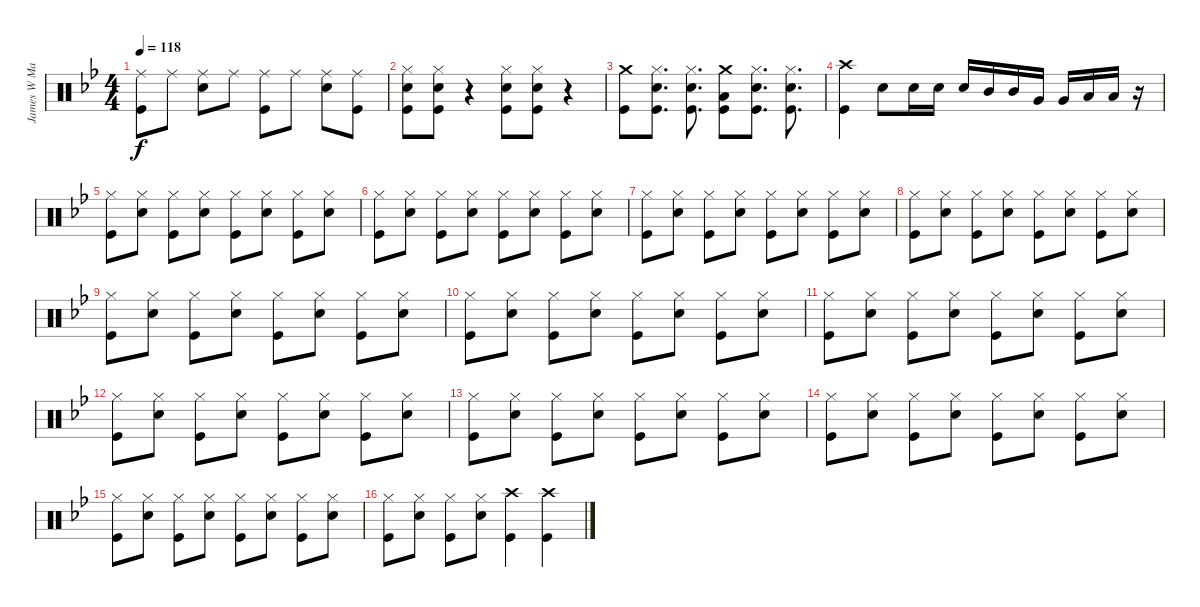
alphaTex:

\track ("James W Marshall Drums" "James W Ma") {instrument percussion}
\staff {score}
\articulation defaults
\ts (4 4)
\tempo 118
\clef neutral
\ks gminor
("Ride (middle)" "Kick (hit)").8{dy f} "Ride (middle)".8 ("Ride (middle)" "Snare (hit) 2").8 "Ride (middle)".8 ("Ride (middle)" "Kick (hit)").8 "Ride (middle)".8 ("Ride (middle)" "Snare (hit) 2").8 ("Ride (middle)" "Kick (hit)").8 |
("Hi-Hat (closed)" "Snare (hit) 2" "Kick (hit)").8 ("Hi-Hat (closed)" "Snare (hit) 2" "Kick (hit)").8 r.4 ("Hi-Hat (closed)" "Snare (hit) 2" "Kick (hit)").8 ("Hi-Hat (closed)" "Snare (hit) 2" "Kick (hit)").8 r.4 |
("Crash medium (hit)" "Kick (hit)").8 ("Hi-Hat (closed)" "Snare (hit) 2" "Kick (hit)").8{d} ("Hi-Hat (closed)" "Snare (hit) 2" "Kick (hit)").8{d} ("Crash medium (hit)" "Low Floor Tom (hit)" "Kick (hit)").8 ("Hi-Hat (closed)" "Snare (hit) 2" "Kick (hit)").8{d} ("Hi-Hat (closed)" "Snare (hit) 2" "Kick (hit)").8{d} |
("Crash high (hit)" "Kick (hit)").4 "Snare (hit) 2".8 "Snare (hit) 2".16 "Snare (hit) 2".16 "Snare (hit) 2".16 "Mid Tom (hit)".16 "Mid Tom (hit)".16 "Very Low Tom (hit)".16 "Very Low Tom (hit)".16 "Low Tom (hit)".16 "Low Tom (hit)".16 r.16 |
("Hi-Hat (closed)" "Kick (hit)").8 ("Hi-Hat (closed)" "Snare (hit) 2").8 ("Hi-Hat (closed)" "Kick (hit)").8 ("Hi-Hat (closed)" "Snare (hit) 2").8 ("Hi-Hat (closed)" "Kick (hit)").8 ("Hi-Hat (closed)" "Snare (hit) 2").8 ("Hi-Hat (closed)" "Kick (hit)").8 ("Hi-Hat (closed)" "Snare (hit) 2").8 |
("Hi-Hat (closed)" "Kick (hit)").8 ("Hi-Hat (closed)" "Snare (hit) 2").8 ("Hi-Hat (closed)" "Kick (hit)").8 ("Hi-Hat (closed)" "Snare (hit) 2").8 ("Hi-Hat (closed)" "Kick (hit)").8 ("Hi-Hat (closed)" "Snare (hit) 2").8 ("Hi-Hat (closed)" "Kick (hit)").8 ("Hi-Hat (closed)" "Snare (hit) 2").8 |
("Hi-Hat (closed)" "Kick (hit)").8 ("Hi-Hat (closed)" "Snare (hit) 2").8 ("Hi-Hat (closed)" "Kick (hit)").8 ("Hi-Hat (closed)" "Snare (hit) 2").8 ("Hi-Hat (closed)" "Kick (hit)").8 ("Hi-Hat (closed)" "Snare (hit) 2").8 ("Hi-Hat (closed)" "Kick (hit)").8 ("Hi-Hat (closed)" "Snare (hit) 2").8 |
("Hi-Hat (closed)" "Kick (hit)").8 ("Hi-Hat (closed)" "Snare (hit) 2").8 ("Hi-Hat (closed)" "Kick (hit)").8 ("Hi-Hat (closed)" "Snare (hit) 2").8 ("Hi-Hat (closed)" "Kick (hit)").8 ("Hi-Hat (closed)" "Snare (hit) 2").8 ("Hi-Hat (closed)" "Kick (hit)").8 ("Hi-Hat (closed)" "Snare (hit) 2").8 |
("Hi-Hat (closed)" "Kick (hit)").8 ("Hi-Hat (closed)" "Snare (hit) 2").8 ("Hi-Hat (closed)" "Kick (hit)").8 ("Hi-Hat (closed)" "Snare (hit) 2").8 ("Hi-Hat (closed)" "Kick (hit)").8 ("Hi-Hat (closed)" "Snare (hit) 2").8 ("Hi-Hat (closed)" "Kick (hit)").8 ("Hi-Hat (closed)" "Snare (hit) 2").8 |
("Hi-Hat (closed)" "Kick (hit)").8 ("Hi-Hat (closed)" "Snare (hit) 2").8 ("Hi-Hat (closed)" "Kick (hit)").8 ("Hi-Hat (closed)" "Snare (hit) 2").8 ("Hi-Hat (closed)" "Kick (hit)").8 ("Hi-Hat (closed)" "Snare (hit) 2").8 ("Hi-Hat (closed)" "Kick (hit)").8 ("Hi-Hat (closed)" "Snare (hit) 2").8 |
("Hi-Hat (closed)" "Kick (hit)").8 ("Hi-Hat (closed)" "Snare (hit) 2").8 ("Hi-Hat (closed)" "Kick (hit)").8 ("Hi-Hat (closed)" "Snare (hit) 2").8 ("Hi-Hat (closed)" "Kick (hit)").8 ("Hi-Hat (closed)" "Snare (hit) 2").8 ("Hi-Hat (closed)" "Kick (hit)").8 ("Hi-Hat (closed)" "Snare (hit) 2").8 |
("Hi-Hat (closed)" "Kick (hit)").8 ("Hi-Hat (closed)" "Snare (hit) 2").8 ("Hi-Hat (closed)" "Kick (hit)").8 ("Hi-Hat (closed)" "Snare (hit) 2").8 ("Hi-Hat (closed)" "Kick (hit)").8 ("Hi-Hat (closed)" "Snare (hit) 2").8 ("Hi-Hat (closed)" "Kick (hit)").8 ("Hi-Hat (closed)" "Snare (hit) 2").8 |
("Hi-Hat (closed)" "Kick (hit)").8 ("Hi-Hat (closed)" "Snare (hit) 2").8 ("Hi-Hat (closed)" "Kick (hit)").8 ("Hi-Hat (closed)" "Snare (hit) 2").8 ("Hi-Hat (closed)" "Kick (hit)").8 ("Hi-Hat (closed)" "Snare (hit) 2").8 ("Hi-Hat (closed)" "Kick (hit)").8 ("Hi-Hat (closed)" "Snare (hit) 2").8 |
("Hi-Hat (closed)" "Kick (hit)").8 ("Hi-Hat (closed)" "Snare (hit) 2").8 ("Hi-Hat (closed)" "Kick (hit)").8 ("Hi-Hat (closed)" "Snare (hit) 2").8 ("Hi-Hat (closed)" "Kick (hit)").8 ("Hi-Hat (closed)" "Snare (hit) 2").8 ("Hi-Hat (closed)" "Kick (hit)").8 ("Hi-Hat (closed)" "Snare (hit) 2").8 |
("Hi-Hat (closed)" "Kick (hit)").8 ("Hi-Hat (closed)" "Snare (hit) 2").8 ("Hi-Hat (closed)" "Kick (hit)").8 ("Hi-Hat (closed)" "Snare (hit) 2").8 ("Hi-Hat (closed)" "Kick (hit)").8 ("Hi-Hat (closed)" "Snare (hit) 2").8 ("Hi-Hat (closed)" "Kick (hit)").8 ("Hi-Hat (closed)" "Snare (hit) 2").8 |
("Hi-Hat (closed)" "Kick (hit)").8 ("Hi-Hat (closed)" "Snare (hit) 2").8 ("Hi-Hat (closed)" "Kick (hit)").8 ("Hi-Hat (closed)" "Snare (hit) 2").8 ("Crash high (hit)" "Kick (hit)").4 ("Crash high (hit)" "Kick (hit)").4
